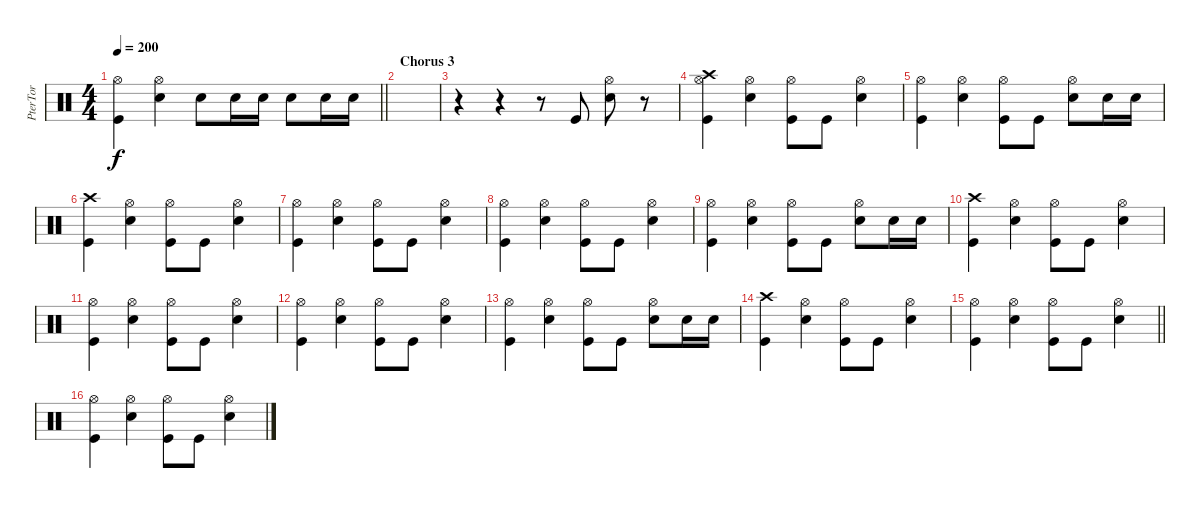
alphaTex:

\track ("PterTor" "PterTor") {instrument percussion}
\staff {score}
\articulation defaults
\ts (4 4)
\tempo 200
\clef neutral
\barLineRight lightlight
\ks c
("Hi-Hat (open)" "Kick (hit)").4{dy f} ("Hi-Hat (open)" "Snare (hit) 2").4 "Snare (hit) 2".8 "Snare (hit) 2".16 "Snare (hit) 2".16 "Snare (hit) 2".8 "Snare (hit) 2".16 "Snare (hit) 2".16 |
\section ("" "Chorus 3")
|
r.4 r.4 r.8 "Kick (hit)".8 ("Hi-Hat (open)" "Electric Snare (hit)").8 r.8 |
("Crash high (hit)" "Hi-Hat (open)" "Kick (hit)").4 ("Hi-Hat (open)" "Snare (hit) 2").4 ("Hi-Hat (open)" "Kick (hit)").8 "Kick (hit)".8 ("Hi-Hat (open)" "Snare (hit) 2").4 |
("Hi-Hat (open)" "Kick (hit)").4 ("Hi-Hat (open)" "Snare (hit) 2").4 ("Hi-Hat (open)" "Kick (hit)").8 "Kick (hit)".8 ("Hi-Hat (open)" "Snare (hit) 2").8 "Snare (hit) 2".16 "Snare (hit) 2".16 |
("Crash high (hit)" "Kick (hit)").4 ("Hi-Hat (open)" "Snare (hit) 2").4 ("Hi-Hat (open)" "Kick (hit)").8 "Kick (hit)".8 ("Hi-Hat (open)" "Snare (hit) 2").4 |
("Hi-Hat (open)" "Kick (hit)").4 ("Hi-Hat (open)" "Snare (hit) 2").4 ("Hi-Hat (open)" "Kick (hit)").8 "Kick (hit)".8 ("Hi-Hat (open)" "Snare (hit) 2").4 |
("Hi-Hat (open)" "Kick (hit)").4 ("Hi-Hat (open)" "Snare (hit) 2").4 ("Hi-Hat (open)" "Kick (hit)").8 "Kick (hit)".8 ("Hi-Hat (open)" "Snare (hit) 2").4 |
("Hi-Hat (open)" "Kick (hit)").4 ("Hi-Hat (open)" "Snare (hit) 2").4 ("Hi-Hat (open)" "Kick (hit)").8 "Kick (hit)".8 ("Hi-Hat (open)" "Snare (hit) 2").8 "Snare (hit) 2".16 "Snare (hit) 2".16 |
("Crash high (hit)" "Kick (hit)").4 ("Hi-Hat (open)" "Snare (hit) 2").4 ("Hi-Hat (open)" "Kick (hit)").8 "Kick (hit)".8 ("Hi-Hat (open)" "Snare (hit) 2").4 |
("Hi-Hat (open)" "Kick (hit)").4 ("Hi-Hat (open)" "Snare (hit) 2").4 ("Hi-Hat (open)" "Kick (hit)").8 "Kick (hit)".8 ("Hi-Hat (open)" "Snare (hit) 2").4 |
("Hi-Hat (open)" "Kick (hit)").4 ("Hi-Hat (open)" "Snare (hit) 2").4 ("Hi-Hat (open)" "Kick (hit)").8 "Kick (hit)".8 ("Hi-Hat (open)" "Snare (hit) 2").4 |
("Hi-Hat (open)" "Kick (hit)").4 ("Hi-Hat (open)" "Snare (hit) 2").4 ("Hi-Hat (open)" "Kick (hit)").8 "Kick (hit)".8 ("Hi-Hat (open)" "Snare (hit) 2").8 "Snare (hit) 2".16 "Snare (hit) 2".16 |
("Crash high (hit)" "Kick (hit)").4 ("Hi-Hat (open)" "Snare (hit) 2").4 ("Hi-Hat (open)" "Kick (hit)").8 "Kick (hit)".8 ("Hi-Hat (open)" "Snare (hit) 2").4 |
\barLineRight lightlight
("Hi-Hat (open)" "Kick (hit)").4 ("Hi-Hat (open)" "Snare (hit) 2").4 ("Hi-Hat (open)" "Kick (hit)").8 "Kick (hit)".8 ("Hi-Hat (open)" "Snare (hit) 2").4 |
("Hi-Hat (open)" "Kick (hit)").4 ("Hi-Hat (open)" "Snare (hit) 2").4 ("Hi-Hat (open)" "Kick (hit)").8 "Kick (hit)".8 ("Hi-Hat (open)" "Snare (hit) 2").4
